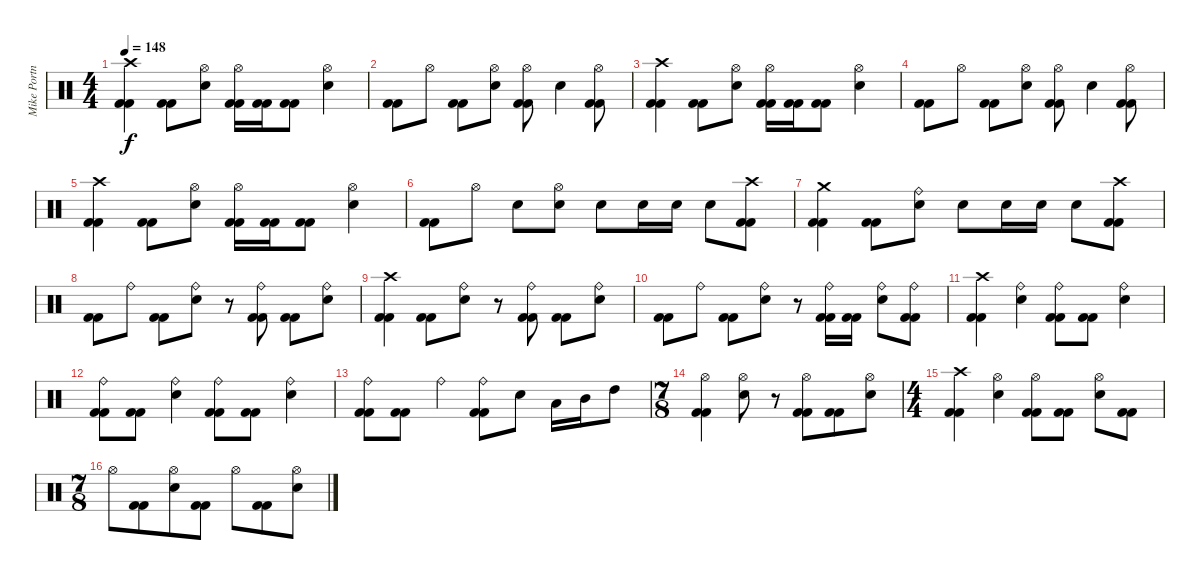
\track ("Mike Portnoy - Drum" "Mike Portn") {instrument percussion}
\staff {score}
\articulation defaults
\ts (4 4)
\tempo 148
\clef neutral
\ks c
("Crash high (hit)" "Kick (hit) 2" "Kick (hit) 2").4{dy f} ("Kick (hit) 2" "Kick (hit) 2").8 ("Hi-Hat (open)" "Snare (hit) 2").8 ("Hi-Hat (open)" "Kick (hit) 2" "Kick (hit) 2").16 ("Kick (hit) 2" "Kick (hit) 2").16 ("Kick (hit) 2" "Kick (hit) 2").8 ("Hi-Hat (open)" "Snare (hit) 2").4 |
("Kick (hit) 2" "Kick (hit) 2").8 "Hi-Hat (open)".8 ("Kick (hit) 2" "Kick (hit) 2").8 ("Hi-Hat (open)" "Snare (hit) 2").8 ("Hi-Hat (open)" "Kick (hit) 2" "Kick (hit) 2").8 "Snare (hit) 2".4 ("Hi-Hat (open)" "Kick (hit) 2" "Kick (hit) 2").8 |
("Crash high (hit)" "Kick (hit) 2" "Kick (hit) 2").4 ("Kick (hit) 2" "Kick (hit) 2").8 ("Hi-Hat (open)" "Snare (hit) 2").8 ("Hi-Hat (open)" "Kick (hit) 2" "Kick (hit) 2").16 ("Kick (hit) 2" "Kick (hit) 2").16 ("Kick (hit) 2" "Kick (hit) 2").8 ("Hi-Hat (open)" "Snare (hit) 2").4 |
("Kick (hit) 2" "Kick (hit) 2").8 "Hi-Hat (open)".8 ("Kick (hit) 2" "Kick (hit) 2").8 ("Hi-Hat (open)" "Snare (hit) 2").8 ("Hi-Hat (open)" "Kick (hit) 2" "Kick (hit) 2").8 "Snare (hit) 2".4 ("Hi-Hat (open)" "Kick (hit) 2" "Kick (hit) 2").8 |
("Crash high (hit)" "Kick (hit) 2" "Kick (hit) 2").4 ("Kick (hit) 2" "Kick (hit) 2").8 ("Hi-Hat (open)" "Snare (hit) 2").8 ("Hi-Hat (open)" "Kick (hit) 2" "Kick (hit) 2").16 ("Kick (hit) 2" "Kick (hit) 2").16 ("Kick (hit) 2" "Kick (hit) 2").8 ("Hi-Hat (open)" "Snare (hit) 2").4 |
("Kick (hit) 2" "Kick (hit) 2").8 "Hi-Hat (open)".8 "Snare (hit) 2".8 ("Hi-Hat (open)" "Snare (hit) 2").8 "Snare (hit) 2".8 "Snare (hit) 2".16 "Snare (hit) 2".16 "Snare (hit) 2".8 ("Crash high (hit)" "Kick (hit) 2" "Kick (hit) 2").8 |
("Crash medium (hit)" "Kick (hit) 2" "Kick (hit) 2").4 ("Kick (hit) 2" "Kick (hit) 2").8 ("Ride (bell)" "Snare (hit) 2").8 "Snare (hit) 2".8 "Snare (hit) 2".16 "Snare (hit) 2".16 "Snare (hit) 2".8 ("Crash high (hit)" "Kick (hit) 2" "Kick (hit) 2").8 |
("Kick (hit) 2" "Kick (hit) 2").8 "Ride (bell)".8 ("Kick (hit) 2" "Kick (hit) 2").8 ("Ride (bell)" "Snare (hit) 2").8 r.8 ("Ride (bell)" "Kick (hit) 2" "Kick (hit) 2").8 ("Kick (hit) 2" "Kick (hit) 2").8 ("Ride (bell)" "Snare (hit) 2").8 |
("Crash high (hit)" "Kick (hit) 2" "Kick (hit) 2").4 ("Kick (hit) 2" "Kick (hit) 2").8 ("Ride (bell)" "Snare (hit) 2").8 r.8 ("Ride (bell)" "Kick (hit) 2" "Kick (hit) 2").8 ("Kick (hit) 2" "Kick (hit) 2").8 ("Ride (bell)" "Snare (hit) 2").8 |
("Kick (hit) 2" "Kick (hit) 2").8 "Ride (bell)".8 ("Kick (hit) 2" "Kick (hit) 2").8 ("Ride (bell)" "Snare (hit) 2").8 r.8 ("Ride (bell)" "Kick (hit) 2" "Kick (hit) 2").16 ("Kick (hit) 2" "Kick (hit) 2").16 ("Ride (bell)" "Snare (hit) 2").8 ("Ride (bell)" "Kick (hit) 2" "Kick (hit) 2").8 |
("Crash high (hit)" "Kick (hit) 2" "Kick (hit) 2").4 ("Ride (bell)" "Snare (hit) 2").4 ("Ride (bell)" "Kick (hit) 2" "Kick (hit) 2").8 ("Kick (hit) 2" "Kick (hit) 2").8 ("Ride (bell)" "Snare (hit) 2").4 |
("Ride (bell)" "Kick (hit) 2" "Kick (hit) 2").8 ("Kick (hit) 2" "Kick (hit) 2").8 ("Ride (bell)" "Snare (hit) 2").4 ("Ride (bell)" "Kick (hit) 2" "Kick (hit) 2").8 ("Kick (hit) 2" "Kick (hit) 2").8 ("Ride (bell)" "Snare (hit) 2").4 |
("Ride (bell)" "Kick (hit) 2" "Kick (hit) 2").8 ("Kick (hit) 2" "Kick (hit) 2").8 "Ride (bell)".4 ("Ride (bell)" "Kick (hit) 2" "Kick (hit) 2").8 "Snare (hit) 2".8 "Low Tom (hit)".16 "Mid Tom (hit)".16 "High Tom (hit)".8 |
\ts (7 8)
("Hi-Hat (open)" "Kick (hit) 2" "Kick (hit) 2").4 ("Hi-Hat (open)" "Snare (hit) 2").8 r.8 ("Hi-Hat (open)" "Kick (hit) 2" "Kick (hit) 2").8 ("Kick (hit) 2" "Kick (hit) 2").8 ("Hi-Hat (open)" "Snare (hit) 2").8 |
\ts (4 4)
("Crash high (hit)" "Kick (hit) 2" "Kick (hit) 2").4 ("Hi-Hat (open)" "Snare (hit) 2").4 ("Hi-Hat (open)" "Kick (hit) 2" "Kick (hit) 2").8 ("Kick (hit) 2" "Kick (hit) 2").8 ("Hi-Hat (open)" "Snare (hit) 2").8 ("Kick (hit) 2" "Kick (hit) 2").8 |
\ts (7 8)
"Hi-Hat (open)".8 ("Kick (hit) 2" "Kick (hit) 2").8 ("Hi-Hat (open)" "Snare (hit) 2").8 ("Kick (hit) 2" "Kick (hit) 2").8 "Hi-Hat (open)".8 ("Kick (hit) 2" "Kick (hit) 2").8 ("Hi-Hat (open)" "Snare (hit) 2").8
